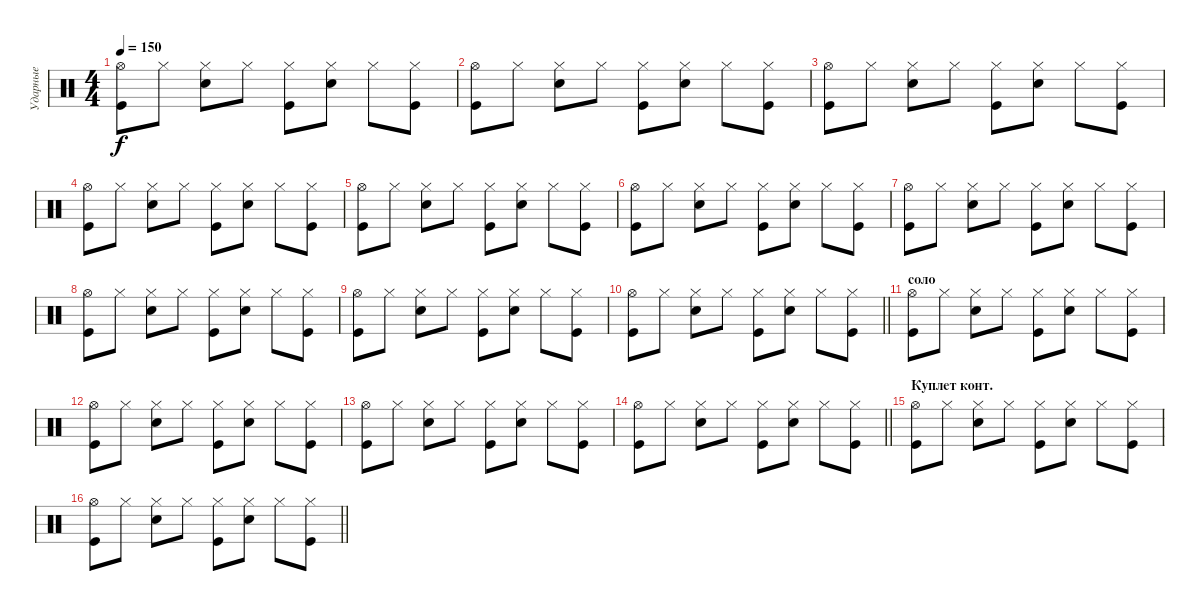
\track ("Ударные" "Ударные") {instrument percussion}
\staff {score}
\articulation defaults
\ts (4 4)
\tempo 150
\clef neutral
\ks c
("Hi-Hat (open)" "Kick (hit)").8{dy f} "Hi-Hat (closed)".8 ("Hi-Hat (closed)" "Snare (hit) 2").8 "Hi-Hat (closed)".8 ("Hi-Hat (closed)" "Kick (hit)").8 ("Hi-Hat (closed)" "Snare (hit) 2").8 "Hi-Hat (closed)".8 ("Hi-Hat (closed)" "Kick (hit)").8 |
("Hi-Hat (open)" "Kick (hit)").8 "Hi-Hat (closed)".8 ("Hi-Hat (closed)" "Snare (hit) 2").8 "Hi-Hat (closed)".8 ("Hi-Hat (closed)" "Kick (hit)").8 ("Hi-Hat (closed)" "Snare (hit) 2").8 "Hi-Hat (closed)".8 ("Hi-Hat (closed)" "Kick (hit)").8 |
("Hi-Hat (open)" "Kick (hit)").8 "Hi-Hat (closed)".8 ("Hi-Hat (closed)" "Snare (hit) 2").8 "Hi-Hat (closed)".8 ("Hi-Hat (closed)" "Kick (hit)").8 ("Hi-Hat (closed)" "Snare (hit) 2").8 "Hi-Hat (closed)".8 ("Hi-Hat (closed)" "Kick (hit)").8 |
("Hi-Hat (open)" "Kick (hit)").8 "Hi-Hat (closed)".8 ("Hi-Hat (closed)" "Snare (hit) 2").8 "Hi-Hat (closed)".8 ("Hi-Hat (closed)" "Kick (hit)").8 ("Hi-Hat (closed)" "Snare (hit) 2").8 "Hi-Hat (closed)".8 ("Hi-Hat (closed)" "Kick (hit)").8 |
("Hi-Hat (open)" "Kick (hit)").8 "Hi-Hat (closed)".8 ("Hi-Hat (closed)" "Snare (hit) 2").8 "Hi-Hat (closed)".8 ("Hi-Hat (closed)" "Kick (hit)").8 ("Hi-Hat (closed)" "Snare (hit) 2").8 "Hi-Hat (closed)".8 ("Hi-Hat (closed)" "Kick (hit)").8 |
("Hi-Hat (open)" "Kick (hit)").8 "Hi-Hat (closed)".8 ("Hi-Hat (closed)" "Snare (hit) 2").8 "Hi-Hat (closed)".8 ("Hi-Hat (closed)" "Kick (hit)").8 ("Hi-Hat (closed)" "Snare (hit) 2").8 "Hi-Hat (closed)".8 ("Hi-Hat (closed)" "Kick (hit)").8 |
("Hi-Hat (open)" "Kick (hit)").8 "Hi-Hat (closed)".8 ("Hi-Hat (closed)" "Snare (hit) 2").8 "Hi-Hat (closed)".8 ("Hi-Hat (closed)" "Kick (hit)").8 ("Hi-Hat (closed)" "Snare (hit) 2").8 "Hi-Hat (closed)".8 ("Hi-Hat (closed)" "Kick (hit)").8 |
("Hi-Hat (open)" "Kick (hit)").8 "Hi-Hat (closed)".8 ("Hi-Hat (closed)" "Snare (hit) 2").8 "Hi-Hat (closed)".8 ("Hi-Hat (closed)" "Kick (hit)").8 ("Hi-Hat (closed)" "Snare (hit) 2").8 "Hi-Hat (closed)".8 ("Hi-Hat (closed)" "Kick (hit)").8 |
("Hi-Hat (open)" "Kick (hit)").8 "Hi-Hat (closed)".8 ("Hi-Hat (closed)" "Snare (hit) 2").8 "Hi-Hat (closed)".8 ("Hi-Hat (closed)" "Kick (hit)").8 ("Hi-Hat (closed)" "Snare (hit) 2").8 "Hi-Hat (closed)".8 ("Hi-Hat (closed)" "Kick (hit)").8 |
\barLineRight lightlight
("Hi-Hat (open)" "Kick (hit)").8 "Hi-Hat (closed)".8 ("Hi-Hat (closed)" "Snare (hit) 2").8 "Hi-Hat (closed)".8 ("Hi-Hat (closed)" "Kick (hit)").8 ("Hi-Hat (closed)" "Snare (hit) 2").8 "Hi-Hat (closed)".8 ("Hi-Hat (closed)" "Kick (hit)").8 |
\section ("" "соло")
("Hi-Hat (open)" "Kick (hit)").8 "Hi-Hat (closed)".8 ("Hi-Hat (closed)" "Snare (hit) 2").8 "Hi-Hat (closed)".8 ("Hi-Hat (closed)" "Kick (hit)").8 ("Hi-Hat (closed)" "Snare (hit) 2").8 "Hi-Hat (closed)".8 ("Hi-Hat (closed)" "Kick (hit)").8 |
("Hi-Hat (open)" "Kick (hit)").8 "Hi-Hat (closed)".8 ("Hi-Hat (closed)" "Snare (hit) 2").8 "Hi-Hat (closed)".8 ("Hi-Hat (closed)" "Kick (hit)").8 ("Hi-Hat (closed)" "Snare (hit) 2").8 "Hi-Hat (closed)".8 ("Hi-Hat (closed)" "Kick (hit)").8 |
("Hi-Hat (open)" "Kick (hit)").8 "Hi-Hat (closed)".8 ("Hi-Hat (closed)" "Snare (hit) 2").8 "Hi-Hat (closed)".8 ("Hi-Hat (closed)" "Kick (hit)").8 ("Hi-Hat (closed)" "Snare (hit) 2").8 "Hi-Hat (closed)".8 ("Hi-Hat (closed)" "Kick (hit)").8 |
\barLineRight lightlight
("Hi-Hat (open)" "Kick (hit)").8 "Hi-Hat (closed)".8 ("Hi-Hat (closed)" "Snare (hit) 2").8 "Hi-Hat (closed)".8 ("Hi-Hat (closed)" "Kick (hit)").8 ("Hi-Hat (closed)" "Snare (hit) 2").8 "Hi-Hat (closed)".8 ("Hi-Hat (closed)" "Kick (hit)").8 |
\section ("" "Куплет конт.")
("Hi-Hat (open)" "Kick (hit)").8 "Hi-Hat (closed)".8 ("Hi-Hat (closed)" "Snare (hit) 2").8 "Hi-Hat (closed)".8 ("Hi-Hat (closed)" "Kick (hit)").8 ("Hi-Hat (closed)" "Snare (hit) 2").8 "Hi-Hat (closed)".8 ("Hi-Hat (closed)" "Kick (hit)").8 |
\barLineRight lightlight
("Hi-Hat (open)" "Kick (hit)").8 "Hi-Hat (closed)".8 ("Hi-Hat (closed)" "Snare (hit) 2").8 "Hi-Hat (closed)".8 ("Hi-Hat (closed)" "Kick (hit)").8 ("Hi-Hat (closed)" "Snare (hit) 2").8 "Hi-Hat (closed)".8 ("Hi-Hat (closed)" "Kick (hit)").8
